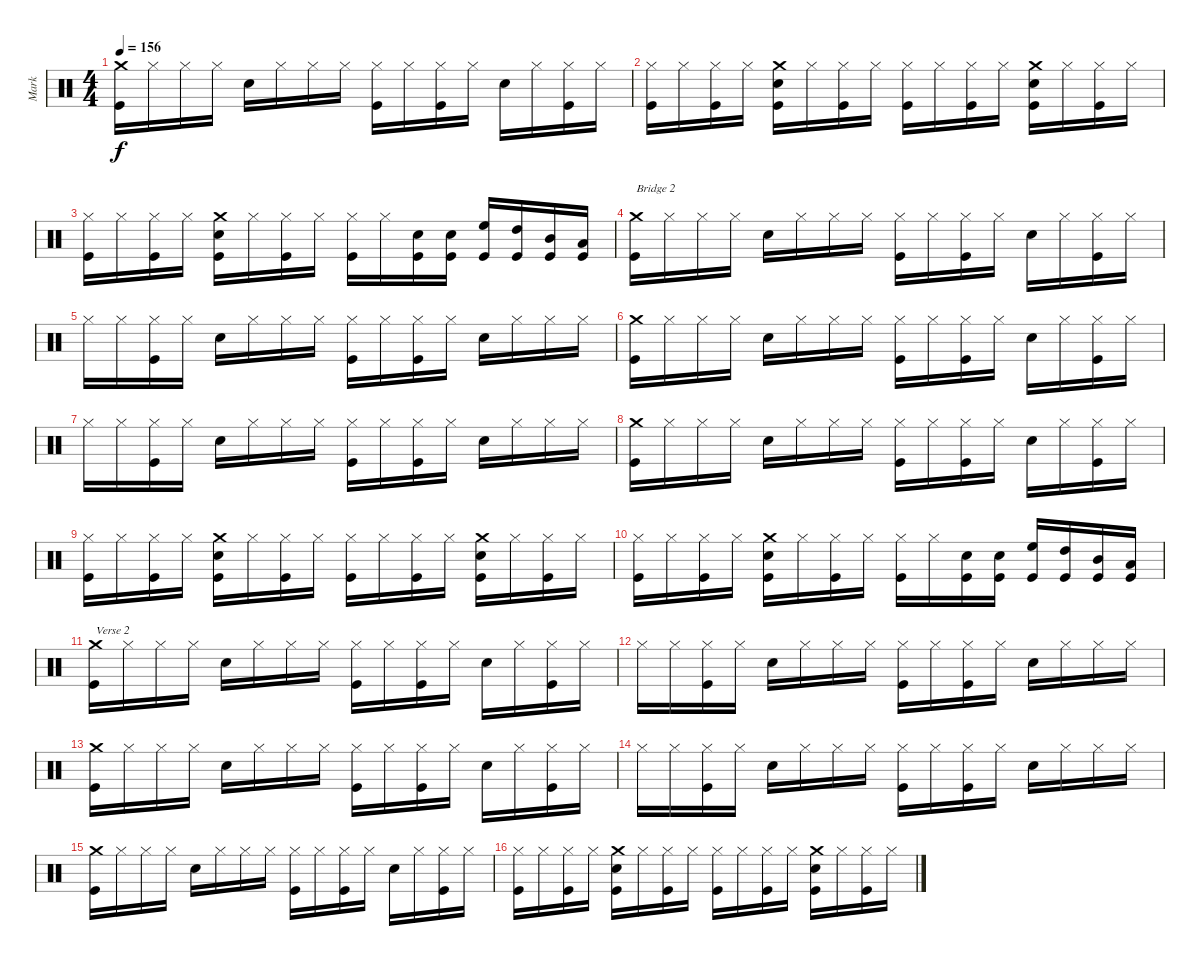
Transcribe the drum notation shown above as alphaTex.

\track ("Mark" "Mark") {instrument percussion}
\staff {score}
\articulation defaults
\ts (4 4)
\tempo 156
\clef neutral
\ks c
("Kick (hit)" "Crash medium (hit)").16{dy f} "Hi-Hat (closed)".16 "Hi-Hat (closed)".16 "Hi-Hat (closed)".16 "Snare (hit) 2".16 "Hi-Hat (closed)".16 "Hi-Hat (closed)".16 "Hi-Hat (closed)".16 ("Kick (hit)" "Hi-Hat (closed)").16 "Hi-Hat (closed)".16 ("Kick (hit)" "Hi-Hat (closed)").16 "Hi-Hat (closed)".16 "Snare (hit) 2".16 "Hi-Hat (closed)".16 ("Kick (hit)" "Hi-Hat (closed)").16 "Hi-Hat (closed)".16 |
("Kick (hit)" "Hi-Hat (closed)").16 "Hi-Hat (closed)".16 ("Kick (hit)" "Hi-Hat (closed)").16 "Hi-Hat (closed)".16 ("Kick (hit)" "Snare (hit) 2" "Crash medium (hit)").16 "Hi-Hat (closed)".16 ("Kick (hit)" "Hi-Hat (closed)").16 "Hi-Hat (closed)".16 ("Kick (hit)" "Hi-Hat (closed)").16 "Hi-Hat (closed)".16 ("Kick (hit)" "Hi-Hat (closed)").16 "Hi-Hat (closed)".16 ("Kick (hit)" "Snare (hit) 2" "Crash medium (hit)").16 "Hi-Hat (closed)".16 ("Kick (hit)" "Hi-Hat (closed)").16 "Hi-Hat (closed)".16 |
("Kick (hit)" "Hi-Hat (closed)").16 "Hi-Hat (closed)".16 ("Kick (hit)" "Hi-Hat (closed)").16 "Hi-Hat (closed)".16 ("Kick (hit)" "Snare (hit) 2" "Crash medium (hit)").16 "Hi-Hat (closed)".16 ("Kick (hit)" "Hi-Hat (closed)").16 "Hi-Hat (closed)".16 ("Kick (hit)" "Hi-Hat (closed)").16 "Hi-Hat (closed)".16 ("Snare (hit) 2" "Kick (hit)").16 ("Snare (hit) 2" "Kick (hit)").16 ("High Floor Tom (hit)" "Kick (hit)").16 ("High Tom (hit)" "Kick (hit)").16 ("Mid Tom (hit)" "Kick (hit)").16 ("Low Tom (hit)" "Kick (hit)").16 |
("Kick (hit)" "Crash medium (hit)").16{txt "Bridge 2"} "Hi-Hat (closed)".16 "Hi-Hat (closed)".16 "Hi-Hat (closed)".16 "Snare (hit) 2".16 "Hi-Hat (closed)".16 "Hi-Hat (closed)".16 "Hi-Hat (closed)".16 ("Kick (hit)" "Hi-Hat (closed)").16 "Hi-Hat (closed)".16 ("Kick (hit)" "Hi-Hat (closed)").16 "Hi-Hat (closed)".16 "Snare (hit) 2".16 "Hi-Hat (closed)".16 ("Kick (hit)" "Hi-Hat (closed)").16 "Hi-Hat (closed)".16 |
"Hi-Hat (closed)".16 "Hi-Hat (closed)".16 ("Kick (hit)" "Hi-Hat (closed)").16 "Hi-Hat (closed)".16 "Snare (hit) 2".16 "Hi-Hat (closed)".16 "Hi-Hat (closed)".16 "Hi-Hat (closed)".16 ("Kick (hit)" "Hi-Hat (closed)").16 "Hi-Hat (closed)".16 ("Kick (hit)" "Hi-Hat (closed)").16 "Hi-Hat (closed)".16 "Snare (hit) 2".16 "Hi-Hat (closed)".16 "Hi-Hat (closed)".16 "Hi-Hat (closed)".16 |
("Kick (hit)" "Crash medium (hit)").16 "Hi-Hat (closed)".16 "Hi-Hat (closed)".16 "Hi-Hat (closed)".16 "Snare (hit) 2".16 "Hi-Hat (closed)".16 "Hi-Hat (closed)".16 "Hi-Hat (closed)".16 ("Kick (hit)" "Hi-Hat (closed)").16 "Hi-Hat (closed)".16 ("Kick (hit)" "Hi-Hat (closed)").16 "Hi-Hat (closed)".16 "Snare (hit) 2".16 "Hi-Hat (closed)".16 ("Kick (hit)" "Hi-Hat (closed)").16 "Hi-Hat (closed)".16 |
"Hi-Hat (closed)".16 "Hi-Hat (closed)".16 ("Kick (hit)" "Hi-Hat (closed)").16 "Hi-Hat (closed)".16 "Snare (hit) 2".16 "Hi-Hat (closed)".16 "Hi-Hat (closed)".16 "Hi-Hat (closed)".16 ("Kick (hit)" "Hi-Hat (closed)").16 "Hi-Hat (closed)".16 ("Kick (hit)" "Hi-Hat (closed)").16 "Hi-Hat (closed)".16 "Snare (hit) 2".16 "Hi-Hat (closed)".16 "Hi-Hat (closed)".16 "Hi-Hat (closed)".16 |
("Kick (hit)" "Crash medium (hit)").16 "Hi-Hat (closed)".16 "Hi-Hat (closed)".16 "Hi-Hat (closed)".16 "Snare (hit) 2".16 "Hi-Hat (closed)".16 "Hi-Hat (closed)".16 "Hi-Hat (closed)".16 ("Kick (hit)" "Hi-Hat (closed)").16 "Hi-Hat (closed)".16 ("Kick (hit)" "Hi-Hat (closed)").16 "Hi-Hat (closed)".16 "Snare (hit) 2".16 "Hi-Hat (closed)".16 ("Kick (hit)" "Hi-Hat (closed)").16 "Hi-Hat (closed)".16 |
("Kick (hit)" "Hi-Hat (closed)").16 "Hi-Hat (closed)".16 ("Kick (hit)" "Hi-Hat (closed)").16 "Hi-Hat (closed)".16 ("Kick (hit)" "Snare (hit) 2" "Crash medium (hit)").16 "Hi-Hat (closed)".16 ("Kick (hit)" "Hi-Hat (closed)").16 "Hi-Hat (closed)".16 ("Kick (hit)" "Hi-Hat (closed)").16 "Hi-Hat (closed)".16 ("Kick (hit)" "Hi-Hat (closed)").16 "Hi-Hat (closed)".16 ("Kick (hit)" "Snare (hit) 2" "Crash medium (hit)").16 "Hi-Hat (closed)".16 ("Kick (hit)" "Hi-Hat (closed)").16 "Hi-Hat (closed)".16 |
("Kick (hit)" "Hi-Hat (closed)").16 "Hi-Hat (closed)".16 ("Kick (hit)" "Hi-Hat (closed)").16 "Hi-Hat (closed)".16 ("Kick (hit)" "Snare (hit) 2" "Crash medium (hit)").16 "Hi-Hat (closed)".16 ("Kick (hit)" "Hi-Hat (closed)").16 "Hi-Hat (closed)".16 ("Kick (hit)" "Hi-Hat (closed)").16 "Hi-Hat (closed)".16 ("Snare (hit) 2" "Kick (hit)").16 ("Snare (hit) 2" "Kick (hit)").16 ("High Floor Tom (hit)" "Kick (hit)").16 ("High Tom (hit)" "Kick (hit)").16 ("Mid Tom (hit)" "Kick (hit)").16 ("Low Tom (hit)" "Kick (hit)").16 |
("Kick (hit)" "Crash medium (hit)").16{txt "Verse 2"} "Hi-Hat (closed)".16 "Hi-Hat (closed)".16 "Hi-Hat (closed)".16 "Snare (hit) 2".16 "Hi-Hat (closed)".16 "Hi-Hat (closed)".16 "Hi-Hat (closed)".16 ("Kick (hit)" "Hi-Hat (closed)").16 "Hi-Hat (closed)".16 ("Kick (hit)" "Hi-Hat (closed)").16 "Hi-Hat (closed)".16 "Snare (hit) 2".16 "Hi-Hat (closed)".16 ("Kick (hit)" "Hi-Hat (closed)").16 "Hi-Hat (closed)".16 |
"Hi-Hat (closed)".16 "Hi-Hat (closed)".16 ("Kick (hit)" "Hi-Hat (closed)").16 "Hi-Hat (closed)".16 "Snare (hit) 2".16 "Hi-Hat (closed)".16 "Hi-Hat (closed)".16 "Hi-Hat (closed)".16 ("Kick (hit)" "Hi-Hat (closed)").16 "Hi-Hat (closed)".16 ("Kick (hit)" "Hi-Hat (closed)").16 "Hi-Hat (closed)".16 "Snare (hit) 2".16 "Hi-Hat (closed)".16 "Hi-Hat (closed)".16 "Hi-Hat (closed)".16 |
("Kick (hit)" "Crash medium (hit)").16 "Hi-Hat (closed)".16 "Hi-Hat (closed)".16 "Hi-Hat (closed)".16 "Snare (hit) 2".16 "Hi-Hat (closed)".16 "Hi-Hat (closed)".16 "Hi-Hat (closed)".16 ("Kick (hit)" "Hi-Hat (closed)").16 "Hi-Hat (closed)".16 ("Kick (hit)" "Hi-Hat (closed)").16 "Hi-Hat (closed)".16 "Snare (hit) 2".16 "Hi-Hat (closed)".16 ("Kick (hit)" "Hi-Hat (closed)").16 "Hi-Hat (closed)".16 |
"Hi-Hat (closed)".16 "Hi-Hat (closed)".16 ("Kick (hit)" "Hi-Hat (closed)").16 "Hi-Hat (closed)".16 "Snare (hit) 2".16 "Hi-Hat (closed)".16 "Hi-Hat (closed)".16 "Hi-Hat (closed)".16 ("Kick (hit)" "Hi-Hat (closed)").16 "Hi-Hat (closed)".16 ("Kick (hit)" "Hi-Hat (closed)").16 "Hi-Hat (closed)".16 "Snare (hit) 2".16 "Hi-Hat (closed)".16 "Hi-Hat (closed)".16 "Hi-Hat (closed)".16 |
("Kick (hit)" "Crash medium (hit)").16 "Hi-Hat (closed)".16 "Hi-Hat (closed)".16 "Hi-Hat (closed)".16 "Snare (hit) 2".16 "Hi-Hat (closed)".16 "Hi-Hat (closed)".16 "Hi-Hat (closed)".16 ("Kick (hit)" "Hi-Hat (closed)").16 "Hi-Hat (closed)".16 ("Kick (hit)" "Hi-Hat (closed)").16 "Hi-Hat (closed)".16 "Snare (hit) 2".16 "Hi-Hat (closed)".16 ("Kick (hit)" "Hi-Hat (closed)").16 "Hi-Hat (closed)".16 |
("Kick (hit)" "Hi-Hat (closed)").16 "Hi-Hat (closed)".16 ("Kick (hit)" "Hi-Hat (closed)").16 "Hi-Hat (closed)".16 ("Kick (hit)" "Snare (hit) 2" "Crash medium (hit)").16 "Hi-Hat (closed)".16 ("Kick (hit)" "Hi-Hat (closed)").16 "Hi-Hat (closed)".16 ("Kick (hit)" "Hi-Hat (closed)").16 "Hi-Hat (closed)".16 ("Kick (hit)" "Hi-Hat (closed)").16 "Hi-Hat (closed)".16 ("Kick (hit)" "Snare (hit) 2" "Crash medium (hit)").16 "Hi-Hat (closed)".16 ("Kick (hit)" "Hi-Hat (closed)").16 "Hi-Hat (closed)".16
